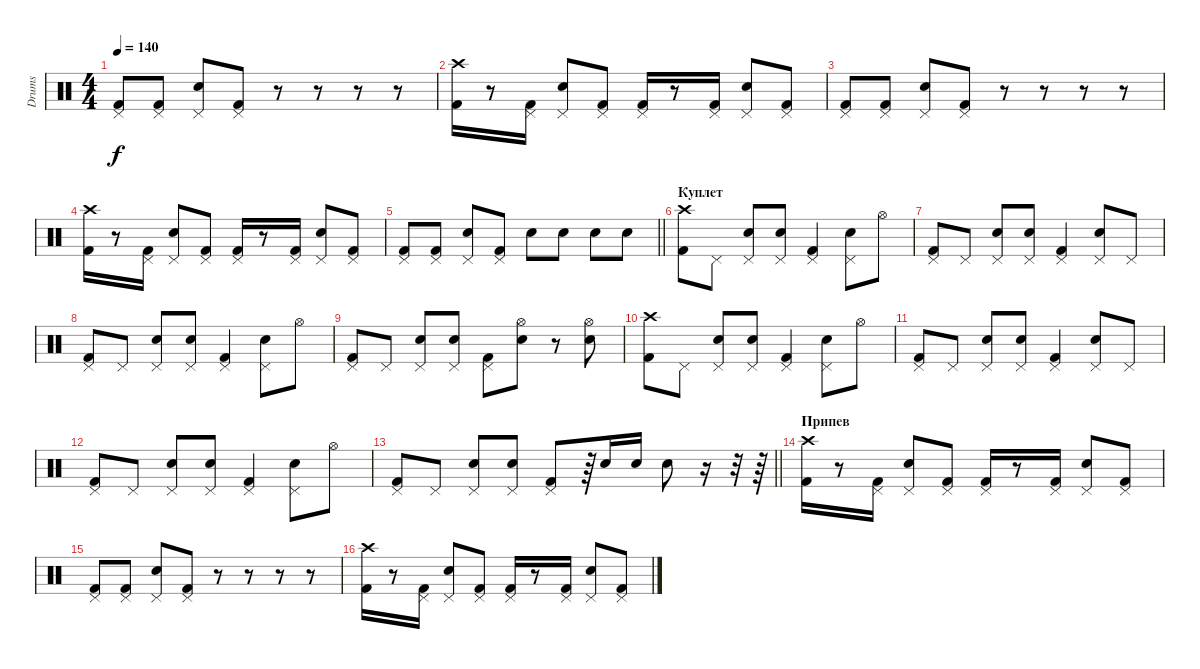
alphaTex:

\track ("Drums" "Drums") {instrument percussion}
\staff {score}
\articulation defaults
\ts (4 4)
\tempo 140
\clef neutral
\ks c
("Kick (hit) 2" "Pedal Hi-Hat (hit)").8{dy f} ("Kick (hit) 2" "Pedal Hi-Hat (hit)").8 ("Snare (hit) 2" "Pedal Hi-Hat (hit)").8 ("Kick (hit) 2" "Pedal Hi-Hat (hit)").8 r.8 r.8 r.8 r.8 |
("Kick (hit) 2" "Crash high (hit)").16 r.8 ("Kick (hit) 2" "Pedal Hi-Hat (hit)").16 ("Snare (hit) 2" "Pedal Hi-Hat (hit)").8 ("Kick (hit) 2" "Pedal Hi-Hat (hit)").8 ("Kick (hit) 2" "Pedal Hi-Hat (hit)").16 r.8 ("Kick (hit) 2" "Pedal Hi-Hat (hit)").16 ("Snare (hit) 2" "Pedal Hi-Hat (hit)").8 ("Kick (hit) 2" "Pedal Hi-Hat (hit)").8 |
("Kick (hit) 2" "Pedal Hi-Hat (hit)").8 ("Kick (hit) 2" "Pedal Hi-Hat (hit)").8 ("Snare (hit) 2" "Pedal Hi-Hat (hit)").8 ("Kick (hit) 2" "Pedal Hi-Hat (hit)").8 r.8 r.8 r.8 r.8 |
("Kick (hit) 2" "Crash high (hit)").16 r.8 ("Kick (hit) 2" "Pedal Hi-Hat (hit)").16 ("Snare (hit) 2" "Pedal Hi-Hat (hit)").8 ("Kick (hit) 2" "Pedal Hi-Hat (hit)").8 ("Kick (hit) 2" "Pedal Hi-Hat (hit)").16 r.8 ("Kick (hit) 2" "Pedal Hi-Hat (hit)").16 ("Snare (hit) 2" "Pedal Hi-Hat (hit)").8 ("Kick (hit) 2" "Pedal Hi-Hat (hit)").8 |
\barLineRight lightlight
("Kick (hit) 2" "Pedal Hi-Hat (hit)").8 ("Kick (hit) 2" "Pedal Hi-Hat (hit)").8 ("Snare (hit) 2" "Pedal Hi-Hat (hit)").8 ("Kick (hit) 2" "Pedal Hi-Hat (hit)").8 "Snare (hit) 2".8 "Snare (hit) 2".8 "Snare (hit) 2".8 "Snare (hit) 2".8 |
\section ("" "Куплет")
("Crash high (hit)" "Kick (hit) 2").8 "Pedal Hi-Hat (hit)".8 ("Snare (hit) 2" "Pedal Hi-Hat (hit)").8 ("Snare (hit) 2" "Pedal Hi-Hat (hit)").8 ("Kick (hit) 2" "Pedal Hi-Hat (hit)").4 ("Snare (hit) 2" "Pedal Hi-Hat (hit)").8 "Hi-Hat (open)".8 |
("Kick (hit) 2" "Pedal Hi-Hat (hit)").8 "Pedal Hi-Hat (hit)".8 ("Snare (hit) 2" "Pedal Hi-Hat (hit)").8 ("Snare (hit) 2" "Pedal Hi-Hat (hit)").8 ("Kick (hit) 2" "Pedal Hi-Hat (hit)").4 ("Snare (hit) 2" "Pedal Hi-Hat (hit)").8 "Pedal Hi-Hat (hit)".8 |
("Kick (hit) 2" "Pedal Hi-Hat (hit)").8 "Pedal Hi-Hat (hit)".8 ("Snare (hit) 2" "Pedal Hi-Hat (hit)").8 ("Snare (hit) 2" "Pedal Hi-Hat (hit)").8 ("Kick (hit) 2" "Pedal Hi-Hat (hit)").4 ("Snare (hit) 2" "Pedal Hi-Hat (hit)").8 "Hi-Hat (open)".8 |
("Kick (hit) 2" "Pedal Hi-Hat (hit)").8 "Pedal Hi-Hat (hit)".8 ("Snare (hit) 2" "Pedal Hi-Hat (hit)").8 ("Snare (hit) 2" "Pedal Hi-Hat (hit)").8 ("Kick (hit) 2" "Pedal Hi-Hat (hit)").8 ("Snare (hit) 2" "Hi-Hat (open)").8 r.8 ("Snare (hit) 2" "Hi-Hat (open)").8 |
("Crash high (hit)" "Kick (hit) 2").8 "Pedal Hi-Hat (hit)".8 ("Snare (hit) 2" "Pedal Hi-Hat (hit)").8 ("Snare (hit) 2" "Pedal Hi-Hat (hit)").8 ("Kick (hit) 2" "Pedal Hi-Hat (hit)").4 ("Snare (hit) 2" "Pedal Hi-Hat (hit)").8 "Hi-Hat (open)".8 |
("Kick (hit) 2" "Pedal Hi-Hat (hit)").8 "Pedal Hi-Hat (hit)".8 ("Snare (hit) 2" "Pedal Hi-Hat (hit)").8 ("Snare (hit) 2" "Pedal Hi-Hat (hit)").8 ("Kick (hit) 2" "Pedal Hi-Hat (hit)").4 ("Snare (hit) 2" "Pedal Hi-Hat (hit)").8 "Pedal Hi-Hat (hit)".8 |
("Kick (hit) 2" "Pedal Hi-Hat (hit)").8 "Pedal Hi-Hat (hit)".8 ("Snare (hit) 2" "Pedal Hi-Hat (hit)").8 ("Snare (hit) 2" "Pedal Hi-Hat (hit)").8 ("Kick (hit) 2" "Pedal Hi-Hat (hit)").4 ("Snare (hit) 2" "Pedal Hi-Hat (hit)").8 "Hi-Hat (open)".8 |
\barLineRight lightlight
("Kick (hit) 2" "Pedal Hi-Hat (hit)").8 "Pedal Hi-Hat (hit)".8 ("Snare (hit) 2" "Pedal Hi-Hat (hit)").8 ("Snare (hit) 2" "Pedal Hi-Hat (hit)").8 ("Kick (hit) 2" "Pedal Hi-Hat (hit)").8 r.64 "Snare (hit) 2".16 "Snare (hit) 2".16 "Snare (hit) 2".8 r.16 r.32 r.64 |
\section ("" "Припев")
("Kick (hit) 2" "Crash high (hit)").16 r.8 ("Kick (hit) 2" "Pedal Hi-Hat (hit)").16 ("Snare (hit) 2" "Pedal Hi-Hat (hit)").8 ("Kick (hit) 2" "Pedal Hi-Hat (hit)").8 ("Kick (hit) 2" "Pedal Hi-Hat (hit)").16 r.8 ("Kick (hit) 2" "Pedal Hi-Hat (hit)").16 ("Snare (hit) 2" "Pedal Hi-Hat (hit)").8 ("Kick (hit) 2" "Pedal Hi-Hat (hit)").8 |
("Kick (hit) 2" "Pedal Hi-Hat (hit)").8 ("Kick (hit) 2" "Pedal Hi-Hat (hit)").8 ("Snare (hit) 2" "Pedal Hi-Hat (hit)").8 ("Kick (hit) 2" "Pedal Hi-Hat (hit)").8 r.8 r.8 r.8 r.8 |
("Kick (hit) 2" "Crash high (hit)").16 r.8 ("Kick (hit) 2" "Pedal Hi-Hat (hit)").16 ("Snare (hit) 2" "Pedal Hi-Hat (hit)").8 ("Kick (hit) 2" "Pedal Hi-Hat (hit)").8 ("Kick (hit) 2" "Pedal Hi-Hat (hit)").16 r.8 ("Kick (hit) 2" "Pedal Hi-Hat (hit)").16 ("Snare (hit) 2" "Pedal Hi-Hat (hit)").8 ("Kick (hit) 2" "Pedal Hi-Hat (hit)").8
